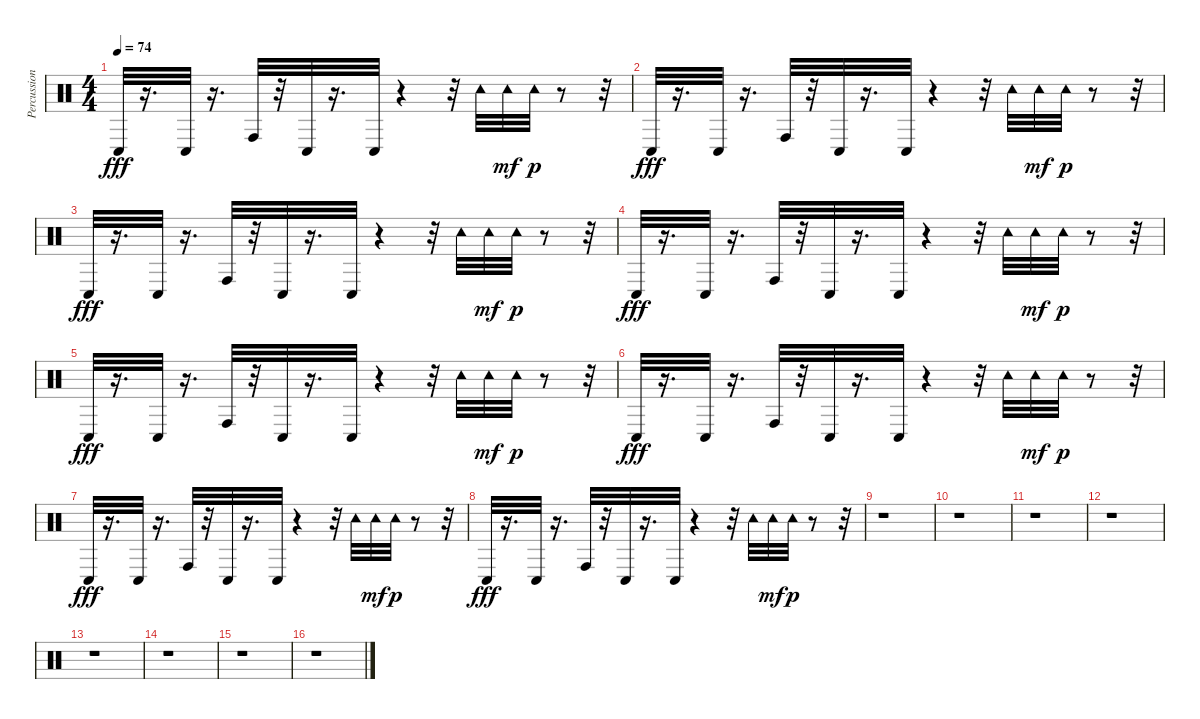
\track ("Percussion" "Percussion") {instrument percussion}
\staff {score}
\articulation defaults
\ts (4 4)
\tempo 74
\clef neutral
\ks c "Conga low (hit)".32{dy fff}
r.16{d} "Conga low (hit)".32 r.16{d} "Conga high (hit)".32 r.32 "Conga low (hit)".32 r.16{d} "Conga low (hit)".32 r.4 r.32 "Tambourine (hit)".32 "Tambourine (hit)".32{dy mf} "Tambourine (hit)".32{dy p} r.8 r.32 |
"Conga low (hit)".32{dy fff} r.16{d} "Conga low (hit)".32 r.16{d} "Conga high (hit)".32 r.32 "Conga low (hit)".32 r.16{d} "Conga low (hit)".32 r.4 r.32 "Tambourine (hit)".32 "Tambourine (hit)".32{dy mf} "Tambourine (hit)".32{dy p} r.8 r.32 |
"Conga low (hit)".32{dy fff} r.16{d} "Conga low (hit)".32 r.16{d} "Conga high (hit)".32 r.32 "Conga low (hit)".32 r.16{d} "Conga low (hit)".32 r.4 r.32 "Tambourine (hit)".32 "Tambourine (hit)".32{dy mf} "Tambourine (hit)".32{dy p} r.8 r.32 |
"Conga low (hit)".32{dy fff} r.16{d} "Conga low (hit)".32 r.16{d} "Conga high (hit)".32 r.32 "Conga low (hit)".32 r.16{d} "Conga low (hit)".32 r.4 r.32 "Tambourine (hit)".32 "Tambourine (hit)".32{dy mf} "Tambourine (hit)".32{dy p} r.8 r.32 |
"Conga low (hit)".32{dy fff} r.16{d} "Conga low (hit)".32 r.16{d} "Conga high (hit)".32 r.32 "Conga low (hit)".32 r.16{d} "Conga low (hit)".32 r.4 r.32 "Tambourine (hit)".32 "Tambourine (hit)".32{dy mf} "Tambourine (hit)".32{dy p} r.8 r.32 |
"Conga low (hit)".32{dy fff} r.16{d} "Conga low (hit)".32 r.16{d} "Conga high (hit)".32 r.32 "Conga low (hit)".32 r.16{d} "Conga low (hit)".32 r.4 r.32 "Tambourine (hit)".32 "Tambourine (hit)".32{dy mf} "Tambourine (hit)".32{dy p} r.8 r.32 |
"Conga low (hit)".32{dy fff} r.16{d} "Conga low (hit)".32 r.16{d} "Conga high (hit)".32 r.32 "Conga low (hit)".32 r.16{d} "Conga low (hit)".32 r.4 r.32 "Tambourine (hit)".32 "Tambourine (hit)".32{dy mf} "Tambourine (hit)".32{dy p} r.8 r.32 |
"Conga low (hit)".32{dy fff} r.16{d} "Conga low (hit)".32 r.16{d} "Conga high (hit)".32 r.32 "Conga low (hit)".32 r.16{d} "Conga low (hit)".32 r.4 r.32 "Tambourine (hit)".32 "Tambourine (hit)".32{dy mf} "Tambourine (hit)".32{dy p} r.8 r.32 |
r.1 |
r.1 |
r.1 |
r.1 |
r.1 |
r.1 |
r.1 |
r.1
